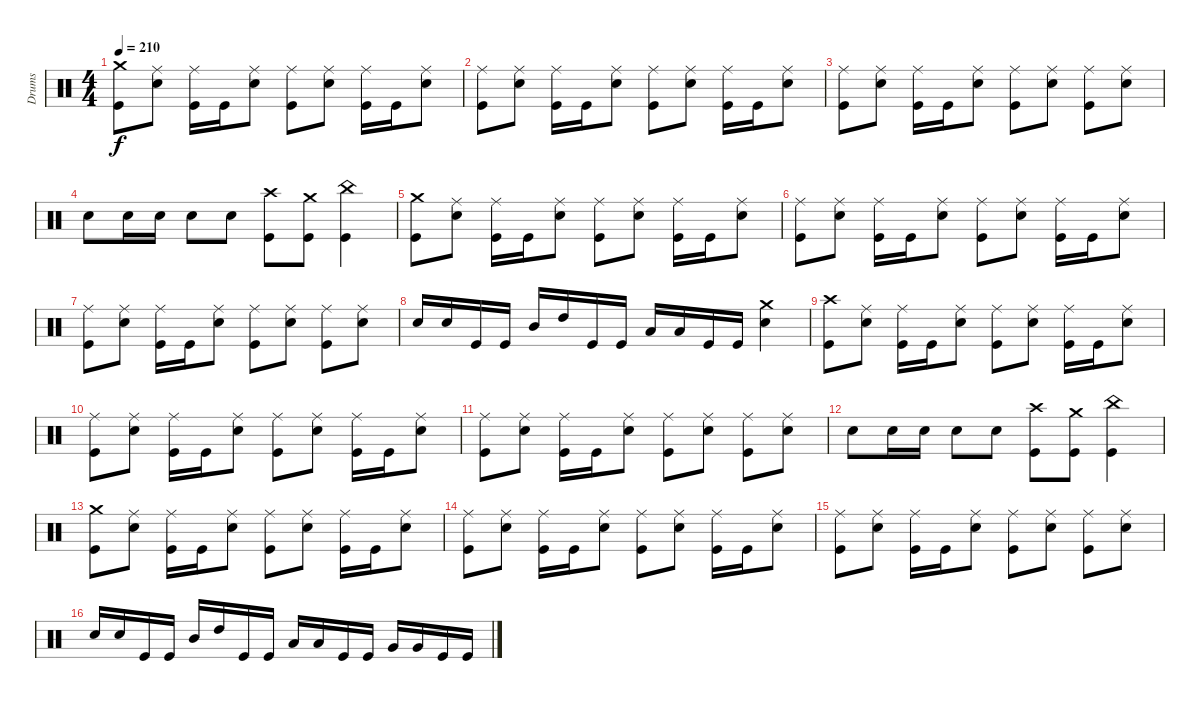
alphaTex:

\track ("Drums" "Drums") {instrument percussion}
\staff {score}
\articulation defaults
\ts (4 4)
\tempo 210
\clef neutral
\ks c
("Kick (hit)" "Crash medium (hit)").8{dy f} ("Electric Snare (hit)" "Ride (middle)").8 ("Kick (hit)" "Ride (middle)").16 "Kick (hit)".16 ("Electric Snare (hit)" "Ride (middle)").8 ("Kick (hit)" "Ride (middle)").8 ("Electric Snare (hit)" "Ride (middle)").8 ("Kick (hit)" "Ride (middle)").16 "Kick (hit)".16 ("Electric Snare (hit)" "Ride (middle)").8 |
("Kick (hit)" "Ride (middle)").8 ("Electric Snare (hit)" "Ride (middle)").8 ("Kick (hit)" "Ride (middle)").16 "Kick (hit)".16 ("Electric Snare (hit)" "Ride (middle)").8 ("Kick (hit)" "Ride (middle)").8 ("Electric Snare (hit)" "Ride (middle)").8 ("Kick (hit)" "Ride (middle)").16 "Kick (hit)".16 ("Electric Snare (hit)" "Ride (middle)").8 |
("Kick (hit)" "Ride (middle)").8 ("Electric Snare (hit)" "Ride (middle)").8 ("Kick (hit)" "Ride (middle)").16 "Kick (hit)".16 ("Electric Snare (hit)" "Ride (middle)").8 ("Kick (hit)" "Ride (middle)").8 ("Electric Snare (hit)" "Ride (middle)").8 ("Kick (hit)" "Ride (middle)").8 ("Electric Snare (hit)" "Ride (middle)").8 |
"Electric Snare (hit)".8 "Electric Snare (hit)".16 "Electric Snare (hit)".16 "Electric Snare (hit)".8 "Electric Snare (hit)".8 ("Kick (hit)" "Crash high (hit)").8 ("Kick (hit)" "Crash medium (hit)").8 ("Kick (hit)" "China (hit)").4 |
("Kick (hit)" "Crash medium (hit)").8 ("Electric Snare (hit)" "Ride (middle)").8 ("Kick (hit)" "Ride (middle)").16 "Kick (hit)".16 ("Electric Snare (hit)" "Ride (middle)").8 ("Kick (hit)" "Ride (middle)").8 ("Electric Snare (hit)" "Ride (middle)").8 ("Kick (hit)" "Ride (middle)").16 "Kick (hit)".16 ("Electric Snare (hit)" "Ride (middle)").8 |
("Kick (hit)" "Ride (middle)").8 ("Electric Snare (hit)" "Ride (middle)").8 ("Kick (hit)" "Ride (middle)").16 "Kick (hit)".16 ("Electric Snare (hit)" "Ride (middle)").8 ("Kick (hit)" "Ride (middle)").8 ("Electric Snare (hit)" "Ride (middle)").8 ("Kick (hit)" "Ride (middle)").16 "Kick (hit)".16 ("Electric Snare (hit)" "Ride (middle)").8 |
("Kick (hit)" "Ride (middle)").8 ("Electric Snare (hit)" "Ride (middle)").8 ("Kick (hit)" "Ride (middle)").16 "Kick (hit)".16 ("Electric Snare (hit)" "Ride (middle)").8 ("Kick (hit)" "Ride (middle)").8 ("Electric Snare (hit)" "Ride (middle)").8 ("Kick (hit)" "Ride (middle)").8 ("Electric Snare (hit)" "Ride (middle)").8 |
"Electric Snare (hit)".16 "Electric Snare (hit)".16 "Kick (hit)".16 "Kick (hit)".16 "Mid Tom (hit)".16 "High Tom (hit)".16 "Kick (hit)".16 "Kick (hit)".16 "Low Tom (hit)".16 "Low Tom (hit)".16 "Kick (hit)".16 "Kick (hit)".16 ("Electric Snare (hit)" "Crash medium (hit)").4 |
("Kick (hit)" "Crash high (hit)").8 ("Electric Snare (hit)" "Ride (middle)").8 ("Kick (hit)" "Ride (middle)").16 "Kick (hit)".16 ("Electric Snare (hit)" "Ride (middle)").8 ("Kick (hit)" "Ride (middle)").8 ("Electric Snare (hit)" "Ride (middle)").8 ("Kick (hit)" "Ride (middle)").16 "Kick (hit)".16 ("Electric Snare (hit)" "Ride (middle)").8 |
("Kick (hit)" "Ride (middle)").8 ("Electric Snare (hit)" "Ride (middle)").8 ("Kick (hit)" "Ride (middle)").16 "Kick (hit)".16 ("Electric Snare (hit)" "Ride (middle)").8 ("Kick (hit)" "Ride (middle)").8 ("Electric Snare (hit)" "Ride (middle)").8 ("Kick (hit)" "Ride (middle)").16 "Kick (hit)".16 ("Electric Snare (hit)" "Ride (middle)").8 |
("Kick (hit)" "Ride (middle)").8 ("Electric Snare (hit)" "Ride (middle)").8 ("Kick (hit)" "Ride (middle)").16 "Kick (hit)".16 ("Electric Snare (hit)" "Ride (middle)").8 ("Kick (hit)" "Ride (middle)").8 ("Electric Snare (hit)" "Ride (middle)").8 ("Kick (hit)" "Ride (middle)").8 ("Electric Snare (hit)" "Ride (middle)").8 |
"Electric Snare (hit)".8 "Electric Snare (hit)".16 "Electric Snare (hit)".16 "Electric Snare (hit)".8 "Electric Snare (hit)".8 ("Kick (hit)" "Crash high (hit)").8 ("Kick (hit)" "Crash medium (hit)").8 ("Kick (hit)" "China (hit)").4 |
("Kick (hit)" "Crash medium (hit)").8 ("Electric Snare (hit)" "Ride (middle)").8 ("Kick (hit)" "Ride (middle)").16 "Kick (hit)".16 ("Electric Snare (hit)" "Ride (middle)").8 ("Kick (hit)" "Ride (middle)").8 ("Electric Snare (hit)" "Ride (middle)").8 ("Kick (hit)" "Ride (middle)").16 "Kick (hit)".16 ("Electric Snare (hit)" "Ride (middle)").8 |
("Kick (hit)" "Ride (middle)").8 ("Electric Snare (hit)" "Ride (middle)").8 ("Kick (hit)" "Ride (middle)").16 "Kick (hit)".16 ("Electric Snare (hit)" "Ride (middle)").8 ("Kick (hit)" "Ride (middle)").8 ("Electric Snare (hit)" "Ride (middle)").8 ("Kick (hit)" "Ride (middle)").16 "Kick (hit)".16 ("Electric Snare (hit)" "Ride (middle)").8 |
("Kick (hit)" "Ride (middle)").8 ("Electric Snare (hit)" "Ride (middle)").8 ("Kick (hit)" "Ride (middle)").16 "Kick (hit)".16 ("Electric Snare (hit)" "Ride (middle)").8 ("Kick (hit)" "Ride (middle)").8 ("Electric Snare (hit)" "Ride (middle)").8 ("Kick (hit)" "Ride (middle)").8 ("Electric Snare (hit)" "Ride (middle)").8 |
"Electric Snare (hit)".16 "Electric Snare (hit)".16 "Kick (hit)".16 "Kick (hit)".16 "Mid Tom (hit)".16 "High Tom (hit)".16 "Kick (hit)".16 "Kick (hit)".16 "Low Tom (hit)".16 "Low Tom (hit)".16 "Kick (hit)".16 "Kick (hit)".16 "Very Low Tom (hit)".16 "Very Low Tom (hit)".16 "Kick (hit)".16 "Kick (hit)".16
